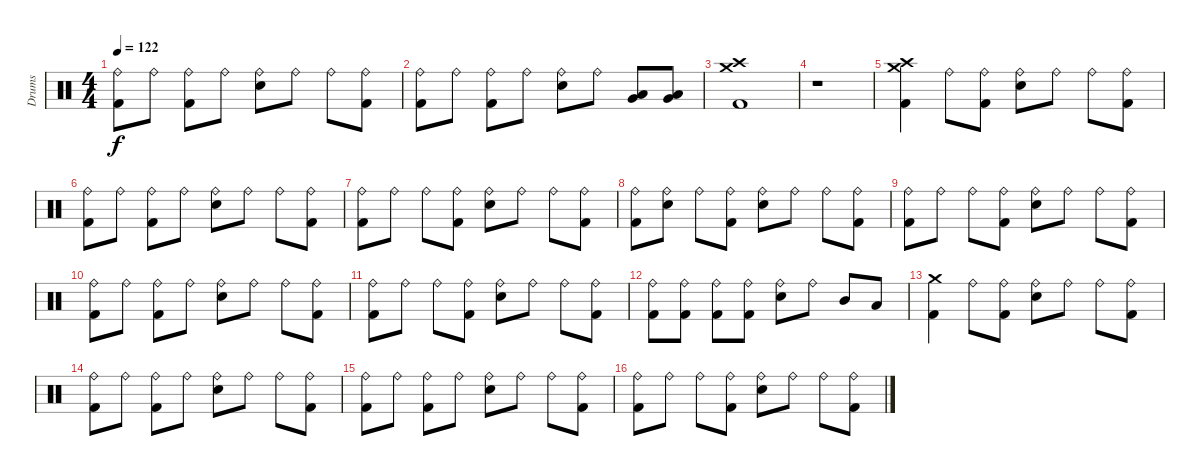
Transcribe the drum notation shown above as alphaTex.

\track ("Drums" "Drums") {instrument percussion}
\staff {score}
\articulation defaults
\ts (4 4)
\tempo 122
\clef neutral
\ks c
("Ride (bell)" "Kick (hit) 2").8{dy f} "Ride (bell)".8 ("Ride (bell)" "Kick (hit) 2").8 "Ride (bell)".8 ("Ride (bell)" "Snare (hit) 2").8 "Ride (bell)".8 "Ride (bell)".8 ("Ride (bell)" "Kick (hit) 2").8 |
("Ride (bell)" "Kick (hit) 2").8 "Ride (bell)".8 ("Ride (bell)" "Kick (hit) 2").8 "Ride (bell)".8 ("Ride (bell)" "Snare (hit) 2").8 "Ride (bell)".8 ("Very Low Tom (hit)" "Low Floor Tom (hit)").8 ("Very Low Tom (hit)" "Low Floor Tom (hit)").8 |
("Crash high (hit)" "Crash medium (hit)" "Kick (hit) 2").1 |
r.1 |
("Crash high (hit)" "Crash medium (hit)" "Kick (hit) 2").4 "Ride (bell)".8 ("Ride (bell)" "Kick (hit) 2").8 ("Ride (bell)" "Snare (hit) 2").8 "Ride (bell)".8 "Ride (bell)".8 ("Ride (bell)" "Kick (hit) 2").8 |
("Ride (bell)" "Kick (hit) 2").8 "Ride (bell)".8 ("Ride (bell)" "Kick (hit) 2").8 "Ride (bell)".8 ("Ride (bell)" "Snare (hit) 2").8 "Ride (bell)".8 "Ride (bell)".8 ("Ride (bell)" "Kick (hit) 2").8 |
("Ride (bell)" "Kick (hit) 2").8 "Ride (bell)".8 "Ride (bell)".8 ("Ride (bell)" "Kick (hit) 2").8 ("Ride (bell)" "Snare (hit) 2").8 "Ride (bell)".8 "Ride (bell)".8 ("Ride (bell)" "Kick (hit) 2").8 |
("Ride (bell)" "Kick (hit) 2").8 ("Ride (bell)" "Snare (hit) 2").8 "Ride (bell)".8 ("Ride (bell)" "Kick (hit) 2").8 ("Ride (bell)" "Snare (hit) 2").8 "Ride (bell)".8 "Ride (bell)".8 ("Ride (bell)" "Kick (hit) 2").8 |
("Ride (bell)" "Kick (hit) 2").8 "Ride (bell)".8 "Ride (bell)".8 ("Ride (bell)" "Kick (hit) 2").8 ("Ride (bell)" "Snare (hit) 2").8 "Ride (bell)".8 "Ride (bell)".8 ("Ride (bell)" "Kick (hit) 2").8 |
("Ride (bell)" "Kick (hit) 2").8 "Ride (bell)".8 ("Ride (bell)" "Kick (hit) 2").8 "Ride (bell)".8 ("Ride (bell)" "Snare (hit) 2").8 "Ride (bell)".8 "Ride (bell)".8 ("Ride (bell)" "Kick (hit) 2").8 |
("Ride (bell)" "Kick (hit) 2").8 "Ride (bell)".8 "Ride (bell)".8 ("Ride (bell)" "Kick (hit) 2").8 ("Ride (bell)" "Snare (hit) 2").8 "Ride (bell)".8 "Ride (bell)".8 ("Ride (bell)" "Kick (hit) 2").8 |
("Ride (bell)" "Kick (hit) 2").8 ("Ride (bell)" "Kick (hit) 2").8 ("Ride (bell)" "Kick (hit) 2").8 ("Ride (bell)" "Kick (hit) 2").8 ("Ride (bell)" "Snare (hit) 2").8 "Ride (bell)".8 "Mid Tom (hit)".8 "Low Tom (hit)".8 |
("Crash medium (hit)" "Kick (hit) 2").4 "Ride (bell)".8 ("Ride (bell)" "Kick (hit) 2").8 ("Ride (bell)" "Snare (hit) 2").8 "Ride (bell)".8 "Ride (bell)".8 ("Ride (bell)" "Kick (hit) 2").8 |
("Ride (bell)" "Kick (hit) 2").8 "Ride (bell)".8 ("Ride (bell)" "Kick (hit) 2").8 "Ride (bell)".8 ("Ride (bell)" "Snare (hit) 2").8 "Ride (bell)".8 "Ride (bell)".8 ("Ride (bell)" "Kick (hit) 2").8 |
("Ride (bell)" "Kick (hit) 2").8 "Ride (bell)".8 ("Ride (bell)" "Kick (hit) 2").8 "Ride (bell)".8 ("Ride (bell)" "Snare (hit) 2").8 "Ride (bell)".8 "Ride (bell)".8 ("Ride (bell)" "Kick (hit) 2").8 |
("Ride (bell)" "Kick (hit) 2").8 "Ride (bell)".8 "Ride (bell)".8 ("Ride (bell)" "Kick (hit) 2").8 ("Ride (bell)" "Snare (hit) 2").8 "Ride (bell)".8 "Ride (bell)".8 ("Ride (bell)" "Kick (hit) 2").8
